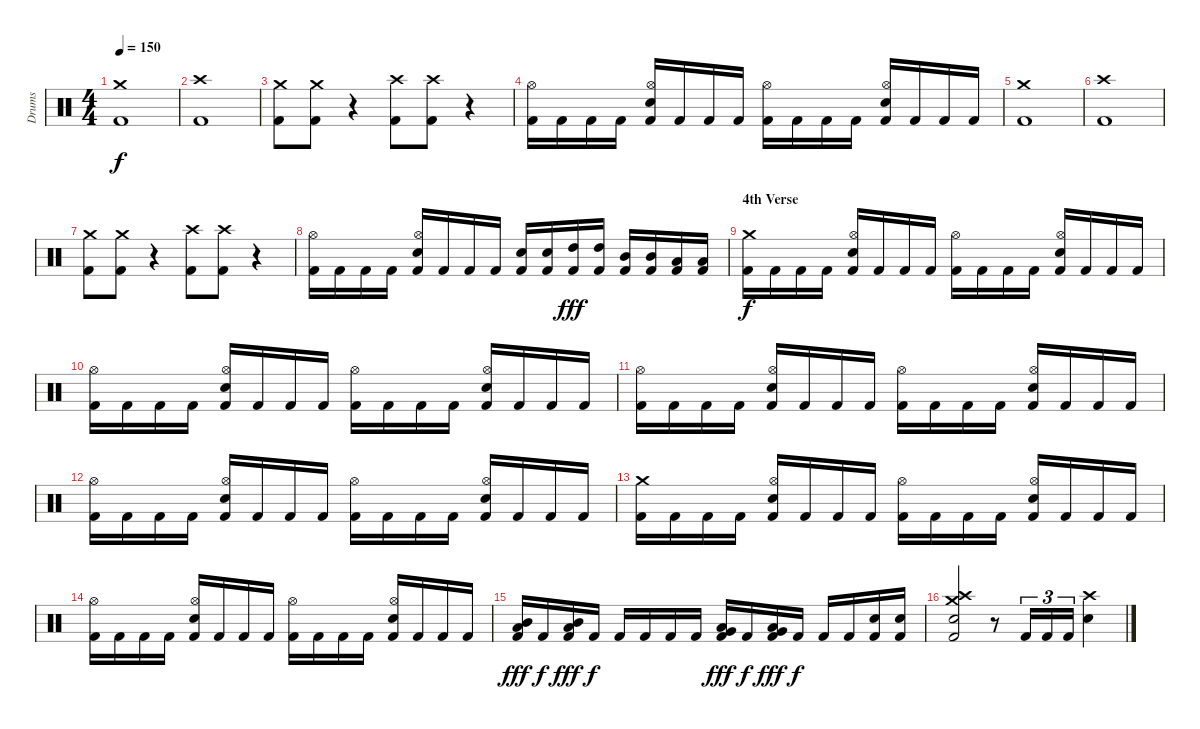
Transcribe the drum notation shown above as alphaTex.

\track ("Drums" "Drums") {instrument percussion}
\staff {score}
\articulation defaults
\ts (4 4)
\tempo 150
\clef neutral
\ks c
("Kick (hit) 2" "Crash medium (hit)").1{dy f} |
("Kick (hit) 2" "Crash high (hit)").1 |
("Kick (hit) 2" "Crash medium (hit)").8 ("Kick (hit) 2" "Crash medium (hit)").8 r.4 ("Kick (hit) 2" "Crash high (hit)").8 ("Kick (hit) 2" "Crash high (hit)").8 r.4 |
("Kick (hit) 2" "Hi-Hat (open)").16 "Kick (hit) 2".16 "Kick (hit) 2".16 "Kick (hit) 2".16 ("Kick (hit) 2" "Electric Snare (hit)" "Hi-Hat (open)").16 "Kick (hit) 2".16 "Kick (hit) 2".16 "Kick (hit) 2".16 ("Kick (hit) 2" "Hi-Hat (open)").16 "Kick (hit) 2".16 "Kick (hit) 2".16 "Kick (hit) 2".16 ("Kick (hit) 2" "Electric Snare (hit)" "Hi-Hat (open)").16 "Kick (hit) 2".16 "Kick (hit) 2".16 "Kick (hit) 2".16 |
("Kick (hit) 2" "Crash medium (hit)").1 |
("Kick (hit) 2" "Crash high (hit)").1 |
("Kick (hit) 2" "Crash medium (hit)").8 ("Kick (hit) 2" "Crash medium (hit)").8 r.4 ("Kick (hit) 2" "Crash high (hit)").8 ("Kick (hit) 2" "Crash high (hit)").8 r.4 |
("Kick (hit) 2" "Hi-Hat (open)").16 "Kick (hit) 2".16 "Kick (hit) 2".16 "Kick (hit) 2".16 ("Kick (hit) 2" "Electric Snare (hit)" "Hi-Hat (open)").16 "Kick (hit) 2".16 "Kick (hit) 2".16 "Kick (hit) 2".16 ("Kick (hit) 2" "Electric Snare (hit)").16 ("Kick (hit) 2" "Electric Snare (hit)").16 ("Kick (hit) 2" "High Tom (hit)").16{dy fff} ("Kick (hit) 2" "High Tom (hit)").16 ("Kick (hit) 2" "Mid Tom (hit)").16 ("Kick (hit) 2" "Mid Tom (hit)").16 ("Kick (hit) 2" "Low Tom (hit)").16 ("Kick (hit) 2" "Low Tom (hit)").16 |
\section ("" "4th Verse")
("Kick (hit) 2" "Crash medium (hit)").16{dy f} "Kick (hit) 2".16 "Kick (hit) 2".16 "Kick (hit) 2".16 ("Kick (hit) 2" "Electric Snare (hit)" "Hi-Hat (open)").16 "Kick (hit) 2".16 "Kick (hit) 2".16 "Kick (hit) 2".16 ("Kick (hit) 2" "Hi-Hat (open)").16 "Kick (hit) 2".16 "Kick (hit) 2".16 "Kick (hit) 2".16 ("Kick (hit) 2" "Electric Snare (hit)" "Hi-Hat (open)").16 "Kick (hit) 2".16 "Kick (hit) 2".16 "Kick (hit) 2".16 |
("Kick (hit) 2" "Hi-Hat (open)").16 "Kick (hit) 2".16 "Kick (hit) 2".16 "Kick (hit) 2".16 ("Kick (hit) 2" "Electric Snare (hit)" "Hi-Hat (open)").16 "Kick (hit) 2".16 "Kick (hit) 2".16 "Kick (hit) 2".16 ("Kick (hit) 2" "Hi-Hat (open)").16 "Kick (hit) 2".16 "Kick (hit) 2".16 "Kick (hit) 2".16 ("Kick (hit) 2" "Electric Snare (hit)" "Hi-Hat (open)").16 "Kick (hit) 2".16 "Kick (hit) 2".16 "Kick (hit) 2".16 |
("Kick (hit) 2" "Hi-Hat (open)").16 "Kick (hit) 2".16 "Kick (hit) 2".16 "Kick (hit) 2".16 ("Kick (hit) 2" "Electric Snare (hit)" "Hi-Hat (open)").16 "Kick (hit) 2".16 "Kick (hit) 2".16 "Kick (hit) 2".16 ("Kick (hit) 2" "Hi-Hat (open)").16 "Kick (hit) 2".16 "Kick (hit) 2".16 "Kick (hit) 2".16 ("Kick (hit) 2" "Electric Snare (hit)" "Hi-Hat (open)").16 "Kick (hit) 2".16 "Kick (hit) 2".16 "Kick (hit) 2".16 |
("Kick (hit) 2" "Hi-Hat (open)").16 "Kick (hit) 2".16 "Kick (hit) 2".16 "Kick (hit) 2".16 ("Kick (hit) 2" "Electric Snare (hit)" "Hi-Hat (open)").16 "Kick (hit) 2".16 "Kick (hit) 2".16 "Kick (hit) 2".16 ("Kick (hit) 2" "Hi-Hat (open)").16 "Kick (hit) 2".16 "Kick (hit) 2".16 "Kick (hit) 2".16 ("Kick (hit) 2" "Electric Snare (hit)" "Hi-Hat (open)").16 "Kick (hit) 2".16 "Kick (hit) 2".16 "Kick (hit) 2".16 |
("Kick (hit) 2" "Crash medium (hit)").16 "Kick (hit) 2".16 "Kick (hit) 2".16 "Kick (hit) 2".16 ("Kick (hit) 2" "Electric Snare (hit)" "Hi-Hat (open)").16 "Kick (hit) 2".16 "Kick (hit) 2".16 "Kick (hit) 2".16 ("Kick (hit) 2" "Hi-Hat (open)").16 "Kick (hit) 2".16 "Kick (hit) 2".16 "Kick (hit) 2".16 ("Kick (hit) 2" "Electric Snare (hit)" "Hi-Hat (open)").16 "Kick (hit) 2".16 "Kick (hit) 2".16 "Kick (hit) 2".16 |
("Kick (hit) 2" "Hi-Hat (open)").16 "Kick (hit) 2".16 "Kick (hit) 2".16 "Kick (hit) 2".16 ("Kick (hit) 2" "Electric Snare (hit)" "Hi-Hat (open)").16 "Kick (hit) 2".16 "Kick (hit) 2".16 "Kick (hit) 2".16 ("Kick (hit) 2" "Hi-Hat (open)").16 "Kick (hit) 2".16 "Kick (hit) 2".16 "Kick (hit) 2".16 ("Kick (hit) 2" "Electric Snare (hit)" "Hi-Hat (open)").16 "Kick (hit) 2".16 "Kick (hit) 2".16 "Kick (hit) 2".16 |
("Kick (hit) 2" "Low Tom (hit)" "Mid Tom (hit)").16{dy fff} "Kick (hit) 2".16{dy f} ("Kick (hit) 2" "Low Tom (hit)" "Mid Tom (hit)").16{dy fff} "Kick (hit) 2".16{dy f} "Kick (hit) 2".16 "Kick (hit) 2".16 "Kick (hit) 2".16 "Kick (hit) 2".16 ("Kick (hit) 2" "Very Low Tom (hit)" "Low Tom (hit)").16{dy fff} "Kick (hit) 2".16{dy f} ("Kick (hit) 2" "Very Low Tom (hit)" "Low Tom (hit)").16{dy fff} "Kick (hit) 2".16{dy f} "Kick (hit) 2".16 "Kick (hit) 2".16 ("Kick (hit) 2" "Electric Snare (hit)").16 ("Kick (hit) 2" "Electric Snare (hit)").16 |
("Kick (hit) 2" "Electric Snare (hit)" "Crash high (hit)" "Crash medium (hit)").2 r.8 "Kick (hit) 2".16{tu (3 2)} "Kick (hit) 2".16{tu (3 2)} "Kick (hit) 2".16{tu (3 2)} ("Electric Snare (hit)" "Crash high (hit)").4
